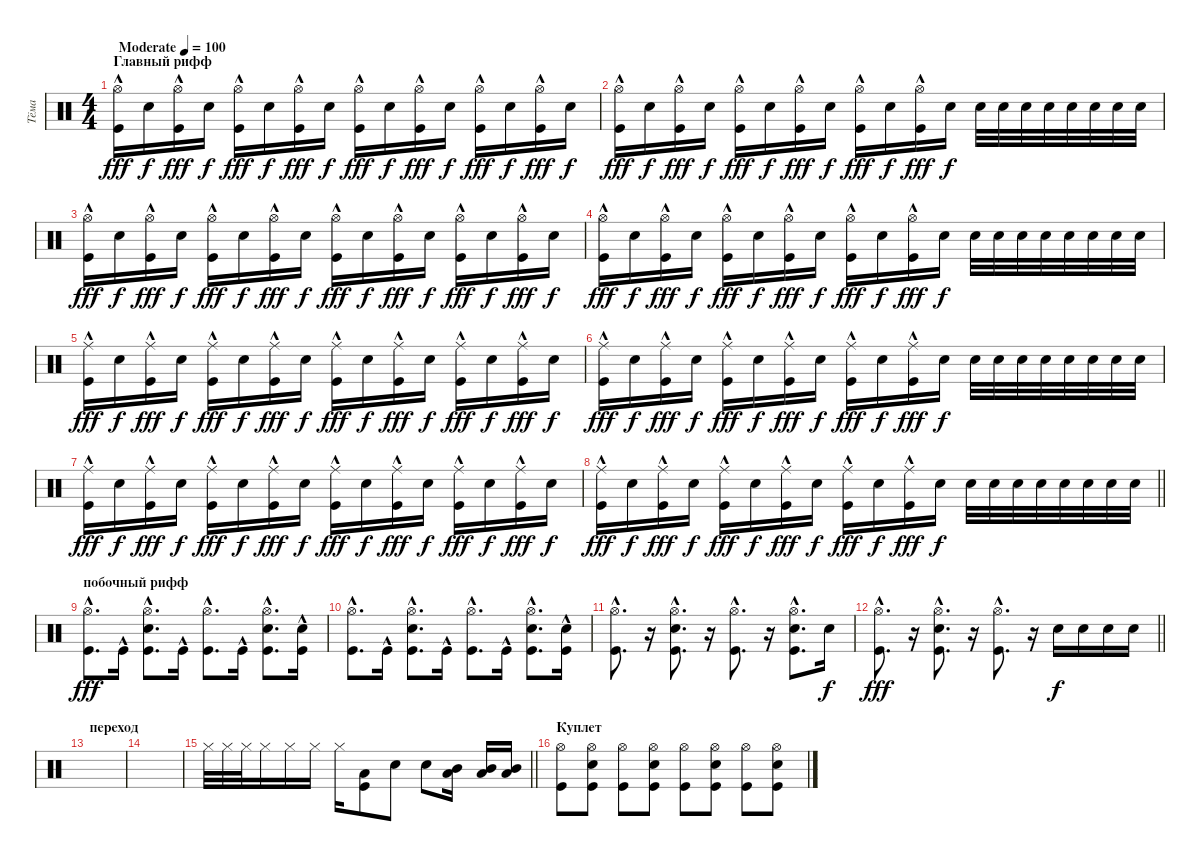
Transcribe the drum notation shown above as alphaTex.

\track ("Тёма" "Тёма") {instrument percussion}
\staff {score}
\articulation defaults
\ts (4 4)
\section ("" "Главный рифф")
\tempo (100 "Moderate")
\clef neutral
\ks c
("Hi-Hat (open)" "Kick (hit)"{hac}).16{dy fff} "Snare (hit) 2".16{dy f} ("Hi-Hat (open)" "Kick (hit)"{hac}).16{dy fff} "Snare (hit) 2".16{dy f} ("Hi-Hat (open)" "Kick (hit)"{hac}).16{dy fff} "Snare (hit) 2".16{dy f} ("Hi-Hat (open)" "Kick (hit)"{hac}).16{dy fff} "Snare (hit) 2".16{dy f} ("Hi-Hat (open)" "Kick (hit)"{hac}).16{dy fff} "Snare (hit) 2".16{dy f} ("Hi-Hat (open)" "Kick (hit)"{hac}).16{dy fff} "Snare (hit) 2".16{dy f} ("Hi-Hat (open)" "Kick (hit)"{hac}).16{dy fff} "Snare (hit) 2".16{dy f} ("Hi-Hat (open)" "Kick (hit)"{hac}).16{dy fff} "Snare (hit) 2".16{dy f} |
("Hi-Hat (open)" "Kick (hit)"{hac}).16{dy fff} "Snare (hit) 2".16{dy f} ("Hi-Hat (open)" "Kick (hit)"{hac}).16{dy fff} "Snare (hit) 2".16{dy f} ("Hi-Hat (open)" "Kick (hit)"{hac}).16{dy fff} "Snare (hit) 2".16{dy f} ("Hi-Hat (open)" "Kick (hit)"{hac}).16{dy fff} "Snare (hit) 2".16{dy f} ("Hi-Hat (open)" "Kick (hit)"{hac}).16{dy fff} "Snare (hit) 2".16{dy f} ("Hi-Hat (open)" "Kick (hit)"{hac}).16{dy fff} "Snare (hit) 2".16{dy f} "Snare (hit) 2".32 "Snare (hit) 2".32 "Snare (hit) 2".32 "Snare (hit) 2".32 "Snare (hit) 2".32 "Snare (hit) 2".32 "Snare (hit) 2".32 "Snare (hit) 2".32 |
("Hi-Hat (open)" "Kick (hit)"{hac}).16{dy fff} "Snare (hit) 2".16{dy f} ("Hi-Hat (open)" "Kick (hit)"{hac}).16{dy fff} "Snare (hit) 2".16{dy f} ("Hi-Hat (open)" "Kick (hit)"{hac}).16{dy fff} "Snare (hit) 2".16{dy f} ("Hi-Hat (open)" "Kick (hit)"{hac}).16{dy fff} "Snare (hit) 2".16{dy f} ("Hi-Hat (open)" "Kick (hit)"{hac}).16{dy fff} "Snare (hit) 2".16{dy f} ("Hi-Hat (open)" "Kick (hit)"{hac}).16{dy fff} "Snare (hit) 2".16{dy f} ("Hi-Hat (open)" "Kick (hit)"{hac}).16{dy fff} "Snare (hit) 2".16{dy f} ("Hi-Hat (open)" "Kick (hit)"{hac}).16{dy fff} "Snare (hit) 2".16{dy f} |
("Hi-Hat (open)" "Kick (hit)"{hac}).16{dy fff} "Snare (hit) 2".16{dy f} ("Hi-Hat (open)" "Kick (hit)"{hac}).16{dy fff} "Snare (hit) 2".16{dy f} ("Hi-Hat (open)" "Kick (hit)"{hac}).16{dy fff} "Snare (hit) 2".16{dy f} ("Hi-Hat (open)" "Kick (hit)"{hac}).16{dy fff} "Snare (hit) 2".16{dy f} ("Hi-Hat (open)" "Kick (hit)"{hac}).16{dy fff} "Snare (hit) 2".16{dy f} ("Hi-Hat (open)" "Kick (hit)"{hac}).16{dy fff} "Snare (hit) 2".16{dy f} "Snare (hit) 2".32 "Snare (hit) 2".32 "Snare (hit) 2".32 "Snare (hit) 2".32 "Snare (hit) 2".32 "Snare (hit) 2".32 "Snare (hit) 2".32 "Snare (hit) 2".32 |
("Ride (middle)" "Kick (hit)"{hac}).16{dy fff} "Snare (hit) 2".16{dy f} ("Ride (middle)" "Kick (hit)"{hac}).16{dy fff} "Snare (hit) 2".16{dy f} ("Ride (middle)" "Kick (hit)"{hac}).16{dy fff} "Snare (hit) 2".16{dy f} ("Ride (middle)" "Kick (hit)"{hac}).16{dy fff} "Snare (hit) 2".16{dy f} ("Ride (middle)" "Kick (hit)"{hac}).16{dy fff} "Snare (hit) 2".16{dy f} ("Ride (middle)" "Kick (hit)"{hac}).16{dy fff} "Snare (hit) 2".16{dy f} ("Ride (middle)" "Kick (hit)"{hac}).16{dy fff} "Snare (hit) 2".16{dy f} ("Ride (middle)" "Kick (hit)"{hac}).16{dy fff} "Snare (hit) 2".16{dy f} |
("Ride (middle)" "Kick (hit)"{hac}).16{dy fff} "Snare (hit) 2".16{dy f} ("Ride (middle)" "Kick (hit)"{hac}).16{dy fff} "Snare (hit) 2".16{dy f} ("Ride (middle)" "Kick (hit)"{hac}).16{dy fff} "Snare (hit) 2".16{dy f} ("Ride (middle)" "Kick (hit)"{hac}).16{dy fff} "Snare (hit) 2".16{dy f} ("Ride (middle)" "Kick (hit)"{hac}).16{dy fff} "Snare (hit) 2".16{dy f} ("Ride (middle)" "Kick (hit)"{hac}).16{dy fff} "Snare (hit) 2".16{dy f} "Snare (hit) 2".32 "Snare (hit) 2".32 "Snare (hit) 2".32 "Snare (hit) 2".32 "Snare (hit) 2".32 "Snare (hit) 2".32 "Snare (hit) 2".32 "Snare (hit) 2".32 |
("Ride (middle)" "Kick (hit)"{hac}).16{dy fff} "Snare (hit) 2".16{dy f} ("Ride (middle)" "Kick (hit)"{hac}).16{dy fff} "Snare (hit) 2".16{dy f} ("Ride (middle)" "Kick (hit)"{hac}).16{dy fff} "Snare (hit) 2".16{dy f} ("Ride (middle)" "Kick (hit)"{hac}).16{dy fff} "Snare (hit) 2".16{dy f} ("Ride (middle)" "Kick (hit)"{hac}).16{dy fff} "Snare (hit) 2".16{dy f} ("Ride (middle)" "Kick (hit)"{hac}).16{dy fff} "Snare (hit) 2".16{dy f} ("Ride (middle)" "Kick (hit)"{hac}).16{dy fff} "Snare (hit) 2".16{dy f} ("Ride (middle)" "Kick (hit)"{hac}).16{dy fff} "Snare (hit) 2".16{dy f} |
\barLineRight lightlight
("Ride (middle)" "Kick (hit)"{hac}).16{dy fff} "Snare (hit) 2".16{dy f} ("Ride (middle)" "Kick (hit)"{hac}).16{dy fff} "Snare (hit) 2".16{dy f} ("Ride (middle)" "Kick (hit)"{hac}).16{dy fff} "Snare (hit) 2".16{dy f} ("Ride (middle)" "Kick (hit)"{hac}).16{dy fff} "Snare (hit) 2".16{dy f} ("Ride (middle)" "Kick (hit)"{hac}).16{dy fff} "Snare (hit) 2".16{dy f} ("Ride (middle)" "Kick (hit)"{hac}).16{dy fff} "Snare (hit) 2".16{dy f} "Snare (hit) 2".32 "Snare (hit) 2".32 "Snare (hit) 2".32 "Snare (hit) 2".32 "Snare (hit) 2".32 "Snare (hit) 2".32 "Snare (hit) 2".32 "Snare (hit) 2".32 |
\section ("" "побочный рифф")
("Hi-Hat (open)"{hac} "Kick (hit)"{hac}).8{d dy fff} "Kick (hit)"{hac}.16 ("Hi-Hat (open)"{hac} "Snare (hit) 2"{hac} "Kick (hit)"{hac}).8{d} "Kick (hit)"{hac}.16 ("Hi-Hat (open)"{hac} "Kick (hit)"{hac}).8{d} "Kick (hit)"{hac}.16 ("Hi-Hat (open)"{hac} "Snare (hit) 2"{hac} "Kick (hit)"{hac}).8{d} ("Snare (hit) 2" "Kick (hit)"{hac}).16 |
("Hi-Hat (open)"{hac} "Kick (hit)"{hac}).8{d} "Kick (hit)"{hac}.16 ("Hi-Hat (open)"{hac} "Snare (hit) 2"{hac} "Kick (hit)"{hac}).8{d} "Kick (hit)"{hac}.16 ("Hi-Hat (open)"{hac} "Kick (hit)"{hac}).8{d} "Kick (hit)"{hac}.16 ("Hi-Hat (open)"{hac} "Snare (hit) 2"{hac} "Kick (hit)"{hac}).8{d} ("Snare (hit) 2" "Kick (hit)"{hac}).16 |
("Hi-Hat (open)"{hac} "Kick (hit)"{hac}).8{d} r.16 ("Hi-Hat (open)"{hac} "Snare (hit) 2"{hac} "Kick (hit)"{hac}).8{d} r.16 ("Hi-Hat (open)"{hac} "Kick (hit)"{hac}).8{d} r.16 ("Hi-Hat (open)"{hac} "Snare (hit) 2"{hac} "Kick (hit)"{hac}).8{d} "Snare (hit) 2".16{dy f} |
\barLineRight lightlight
("Hi-Hat (open)"{hac} "Kick (hit)"{hac}).8{d dy fff} r.16 ("Hi-Hat (open)"{hac} "Snare (hit) 2"{hac} "Kick (hit)"{hac}).8{d} r.16 ("Hi-Hat (open)"{hac} "Kick (hit)"{hac}).8{d} r.16 "Snare (hit) 2".16{dy f} "Snare (hit) 2".16 "Snare (hit) 2".16 "Snare (hit) 2".16 |
\section ("" "переход")
|
|
\barLineRight lightlight "Hi-Hat (closed)".32 "Hi-Hat (closed)".32 "Hi-Hat (closed)".32 "Hi-Hat (closed)".16 "Hi-Hat (closed)".16 "Hi-Hat (closed)".16 "Hi-Hat (closed)".16
("Low Floor Tom (hit)" "Kick (hit)").8 "Snare (hit) 2".8 "Snare (hit) 2".8 ("Mid Tom (hit)" "Low Floor Tom (hit)").16 ("Mid Tom (hit)" "Low Floor Tom (hit)").16 ("Mid Tom (hit)" "Low Floor Tom (hit)").16 |
\section ("" "Куплет")
("Hi-Hat (open)" "Kick (hit)").8 ("Hi-Hat (open)" "Snare (hit) 2" "Kick (hit)").8 ("Hi-Hat (open)" "Kick (hit)").8 ("Hi-Hat (open)" "Snare (hit) 2" "Kick (hit)").8 ("Hi-Hat (open)" "Kick (hit)").8 ("Hi-Hat (open)" "Snare (hit) 2" "Kick (hit)").8 ("Hi-Hat (open)" "Kick (hit)").8 ("Hi-Hat (open)" "Snare (hit) 2" "Kick (hit)").8
